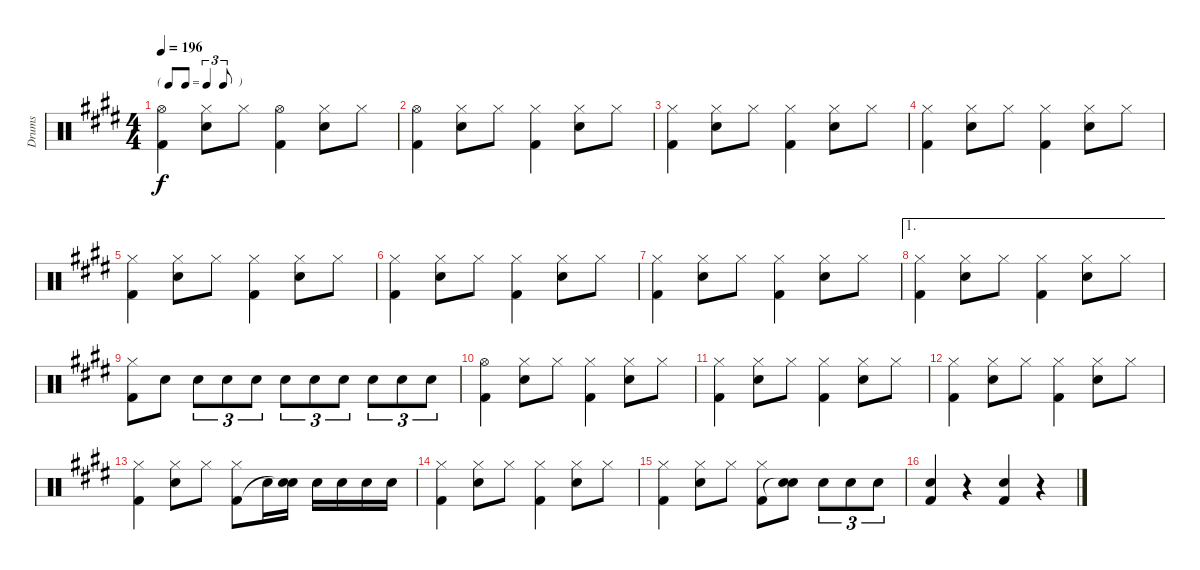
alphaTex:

\track ("Drums" "Drums") {instrument percussion}
\staff {score}
\articulation defaults
\ts (4 4)
\tf triplet8th
\tempo 196
\clef neutral
\ks e
("Hi-Hat (open)" "Kick (hit) 2").4{dy f} ("Hi-Hat (closed)" "Snare (hit) 2").8 "Hi-Hat (closed)".8 ("Hi-Hat (open)" "Kick (hit) 2").4 ("Hi-Hat (closed)" "Snare (hit) 2").8 "Hi-Hat (closed)".8 |
("Hi-Hat (open)" "Kick (hit) 2").4 ("Hi-Hat (closed)" "Snare (hit) 2").8 "Hi-Hat (closed)".8 ("Hi-Hat (closed)" "Kick (hit) 2").4 ("Hi-Hat (closed)" "Snare (hit) 2").8 "Hi-Hat (closed)".8 |
("Hi-Hat (closed)" "Kick (hit) 2").4 ("Hi-Hat (closed)" "Snare (hit) 2").8 "Hi-Hat (closed)".8 ("Hi-Hat (closed)" "Kick (hit) 2").4 ("Hi-Hat (closed)" "Snare (hit) 2").8 "Hi-Hat (closed)".8 |
("Hi-Hat (closed)" "Kick (hit) 2").4 ("Hi-Hat (closed)" "Snare (hit) 2").8 "Hi-Hat (closed)".8 ("Hi-Hat (closed)" "Kick (hit) 2").4 ("Hi-Hat (closed)" "Snare (hit) 2").8 "Hi-Hat (closed)".8 |
("Hi-Hat (closed)" "Kick (hit) 2").4 ("Hi-Hat (closed)" "Snare (hit) 2").8 "Hi-Hat (closed)".8 ("Hi-Hat (closed)" "Kick (hit) 2").4 ("Hi-Hat (closed)" "Snare (hit) 2").8 "Hi-Hat (closed)".8 |
("Hi-Hat (closed)" "Kick (hit) 2").4 ("Hi-Hat (closed)" "Snare (hit) 2").8 "Hi-Hat (closed)".8 ("Hi-Hat (closed)" "Kick (hit) 2").4 ("Hi-Hat (closed)" "Snare (hit) 2").8 "Hi-Hat (closed)".8 |
("Hi-Hat (closed)" "Kick (hit) 2").4 ("Hi-Hat (closed)" "Snare (hit) 2").8 "Hi-Hat (closed)".8 ("Hi-Hat (closed)" "Kick (hit) 2").4 ("Hi-Hat (closed)" "Snare (hit) 2").8 "Hi-Hat (closed)".8 |
\ae 1
("Hi-Hat (closed)" "Kick (hit) 2").4 ("Hi-Hat (closed)" "Snare (hit) 2").8 "Hi-Hat (closed)".8 ("Hi-Hat (closed)" "Kick (hit) 2").4 ("Hi-Hat (closed)" "Snare (hit) 2").8 "Hi-Hat (closed)".8 |
("Hi-Hat (closed)" "Kick (hit) 2").8 "Snare (hit) 2".8 "Snare (hit) 2".8{tu (3 2)} "Snare (hit) 2".8{tu (3 2)} "Snare (hit) 2".8{tu (3 2)} "Snare (hit) 2".8{tu (3 2)} "Snare (hit) 2".8{tu (3 2)} "Snare (hit) 2".8{tu (3 2)} "Snare (hit) 2".8{tu (3 2)} "Snare (hit) 2".8{tu (3 2)} "Snare (hit) 2".8{tu (3 2)} |
("Hi-Hat (open)" "Kick (hit) 2").4 ("Hi-Hat (closed)" "Snare (hit) 2").8 "Hi-Hat (closed)".8 ("Hi-Hat (closed)" "Kick (hit) 2").4 ("Hi-Hat (closed)" "Snare (hit) 2").8 "Hi-Hat (closed)".8 |
("Hi-Hat (closed)" "Kick (hit) 2").4 ("Hi-Hat (closed)" "Snare (hit) 2").8 "Hi-Hat (closed)".8 ("Hi-Hat (closed)" "Kick (hit) 2").4 ("Hi-Hat (closed)" "Snare (hit) 2").8 "Hi-Hat (closed)".8 |
("Hi-Hat (closed)" "Kick (hit) 2").4 ("Hi-Hat (closed)" "Snare (hit) 2").8 "Hi-Hat (closed)".8 ("Hi-Hat (closed)" "Kick (hit) 2").4 ("Hi-Hat (closed)" "Snare (hit) 2").8 "Hi-Hat (closed)".8 |
("Hi-Hat (closed)" "Kick (hit) 2").4 ("Hi-Hat (closed)" "Snare (hit) 2").8 "Hi-Hat (closed)".8 ("Hi-Hat (closed)" "Kick (hit) 2").8 "Snare (hit) 2".16 ("Snare (hit) 2" "Snare (hit)"{t}).16 "Snare (hit) 2".16 "Snare (hit) 2".16 "Snare (hit) 2".16 "Snare (hit) 2".16 |
("Hi-Hat (closed)" "Kick (hit) 2").4 ("Hi-Hat (closed)" "Snare (hit) 2").8 "Hi-Hat (closed)".8 ("Hi-Hat (closed)" "Kick (hit) 2").4 ("Hi-Hat (closed)" "Snare (hit) 2").8 "Hi-Hat (closed)".8 |
("Hi-Hat (closed)" "Kick (hit) 2").4 ("Hi-Hat (closed)" "Snare (hit) 2").8 "Hi-Hat (closed)".8 ("Hi-Hat (closed)" "Kick (hit) 2").8 ("Snare (hit) 2" "Snare (hit)"{t}).8 "Snare (hit) 2".8{tu (3 2)} "Snare (hit) 2".8{tu (3 2)} "Snare (hit) 2".8{tu (3 2)} |
("Snare (hit) 2" "Kick (hit) 2").4 r.4 ("Snare (hit) 2" "Kick (hit) 2").4 r.4
